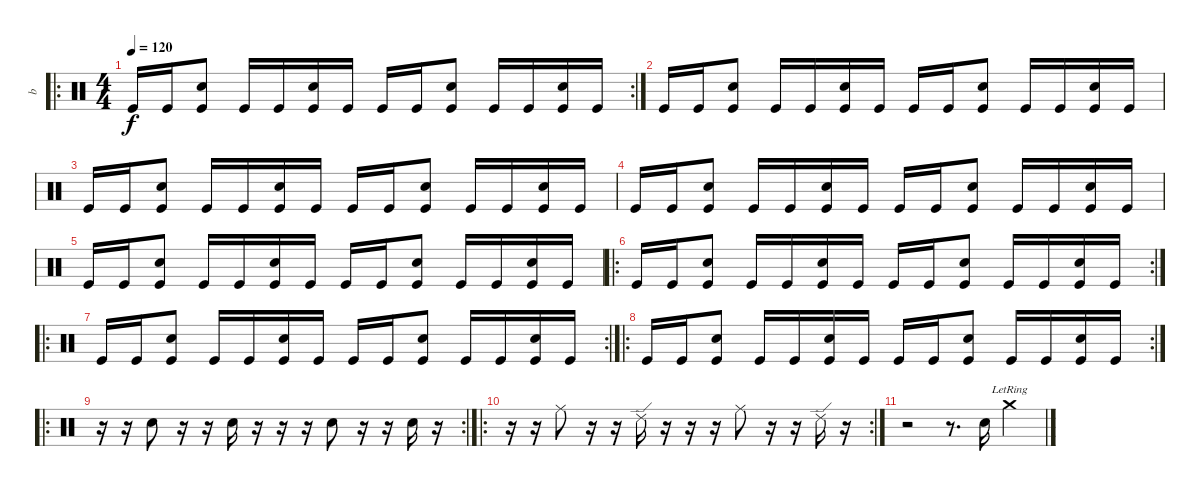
\track ("b" "b") {instrument percussion}
\staff {score}
\articulation defaults
\ro
\rc 2
\ts (4 4)
\tempo 120
\clef neutral
\ks c "Kick (hit)".16{dy f} "Kick (hit)".16
("Electric Snare (hit)" "Kick (hit)").8 "Kick (hit)".16 "Kick (hit)".16 ("Electric Snare (hit)" "Kick (hit)").16 "Kick (hit)".16 "Kick (hit)".16 "Kick (hit)".16 ("Electric Snare (hit)" "Kick (hit)").8 "Kick (hit)".16 "Kick (hit)".16 ("Electric Snare (hit)" "Kick (hit)").16 "Kick (hit)".16 |
"Kick (hit)".16 "Kick (hit)".16 ("Electric Snare (hit)" "Kick (hit)").8 "Kick (hit)".16 "Kick (hit)".16 ("Electric Snare (hit)" "Kick (hit)").16 "Kick (hit)".16 "Kick (hit)".16 "Kick (hit)".16 ("Electric Snare (hit)" "Kick (hit)").8 "Kick (hit)".16 "Kick (hit)".16 ("Electric Snare (hit)" "Kick (hit)").16 "Kick (hit)".16 |
"Kick (hit)".16 "Kick (hit)".16 ("Electric Snare (hit)" "Kick (hit)").8 "Kick (hit)".16 "Kick (hit)".16 ("Electric Snare (hit)" "Kick (hit)").16 "Kick (hit)".16 "Kick (hit)".16 "Kick (hit)".16 ("Electric Snare (hit)" "Kick (hit)").8 "Kick (hit)".16 "Kick (hit)".16 ("Electric Snare (hit)" "Kick (hit)").16 "Kick (hit)".16 |
"Kick (hit)".16 "Kick (hit)".16 ("Electric Snare (hit)" "Kick (hit)").8 "Kick (hit)".16 "Kick (hit)".16 ("Electric Snare (hit)" "Kick (hit)").16 "Kick (hit)".16 "Kick (hit)".16 "Kick (hit)".16 ("Electric Snare (hit)" "Kick (hit)").8 "Kick (hit)".16 "Kick (hit)".16 ("Electric Snare (hit)" "Kick (hit)").16 "Kick (hit)".16 |
"Kick (hit)".16 "Kick (hit)".16 ("Electric Snare (hit)" "Kick (hit)").8 "Kick (hit)".16 "Kick (hit)".16 ("Electric Snare (hit)" "Kick (hit)").16 "Kick (hit)".16 "Kick (hit)".16 "Kick (hit)".16 ("Electric Snare (hit)" "Kick (hit)").8 "Kick (hit)".16 "Kick (hit)".16 ("Electric Snare (hit)" "Kick (hit)").16 "Kick (hit)".16 |
\ro
\rc 2 "Kick (hit)".16 "Kick (hit)".16
("Electric Snare (hit)" "Kick (hit)").8 "Kick (hit)".16 "Kick (hit)".16 ("Electric Snare (hit)" "Kick (hit)").16 "Kick (hit)".16 "Kick (hit)".16 "Kick (hit)".16 ("Electric Snare (hit)" "Kick (hit)").8 "Kick (hit)".16 "Kick (hit)".16 ("Electric Snare (hit)" "Kick (hit)").16 "Kick (hit)".16 |
\ro
\rc 2 "Kick (hit)".16 "Kick (hit)".16
("Electric Snare (hit)" "Kick (hit)").8 "Kick (hit)".16 "Kick (hit)".16 ("Electric Snare (hit)" "Kick (hit)").16 "Kick (hit)".16 "Kick (hit)".16 "Kick (hit)".16 ("Electric Snare (hit)" "Kick (hit)").8 "Kick (hit)".16 "Kick (hit)".16 ("Electric Snare (hit)" "Kick (hit)").16 "Kick (hit)".16 |
\ro
\rc 2 "Kick (hit)".16 "Kick (hit)".16
("Electric Snare (hit)" "Kick (hit)").8 "Kick (hit)".16 "Kick (hit)".16 ("Electric Snare (hit)" "Kick (hit)").16 "Kick (hit)".16 "Kick (hit)".16 "Kick (hit)".16 ("Electric Snare (hit)" "Kick (hit)").8 "Kick (hit)".16 "Kick (hit)".16 ("Electric Snare (hit)" "Kick (hit)").16 "Kick (hit)".16 |
\ro
\rc 2
r.16 r.16 "Electric Snare (hit)".8 r.16 r.16 "Electric Snare (hit)".16 r.16 r.16 r.16 "Electric Snare (hit)".8 r.16 r.16 "Electric Snare (hit)".16 r.16 |
\ro
\rc 2
r.16 r.16 "Ride (middle)".8 r.16 r.16 "Ride (edge) 2".16 r.16 r.16 r.16 "Ride (middle)".8 r.16 r.16 "Ride (edge) 2".16 r.16{volume 0} |
r.2 r.8{d} "Electric Snare (hit)".16{volume 16} "Crash medium (hit)"{lr}.4{volume 16}
